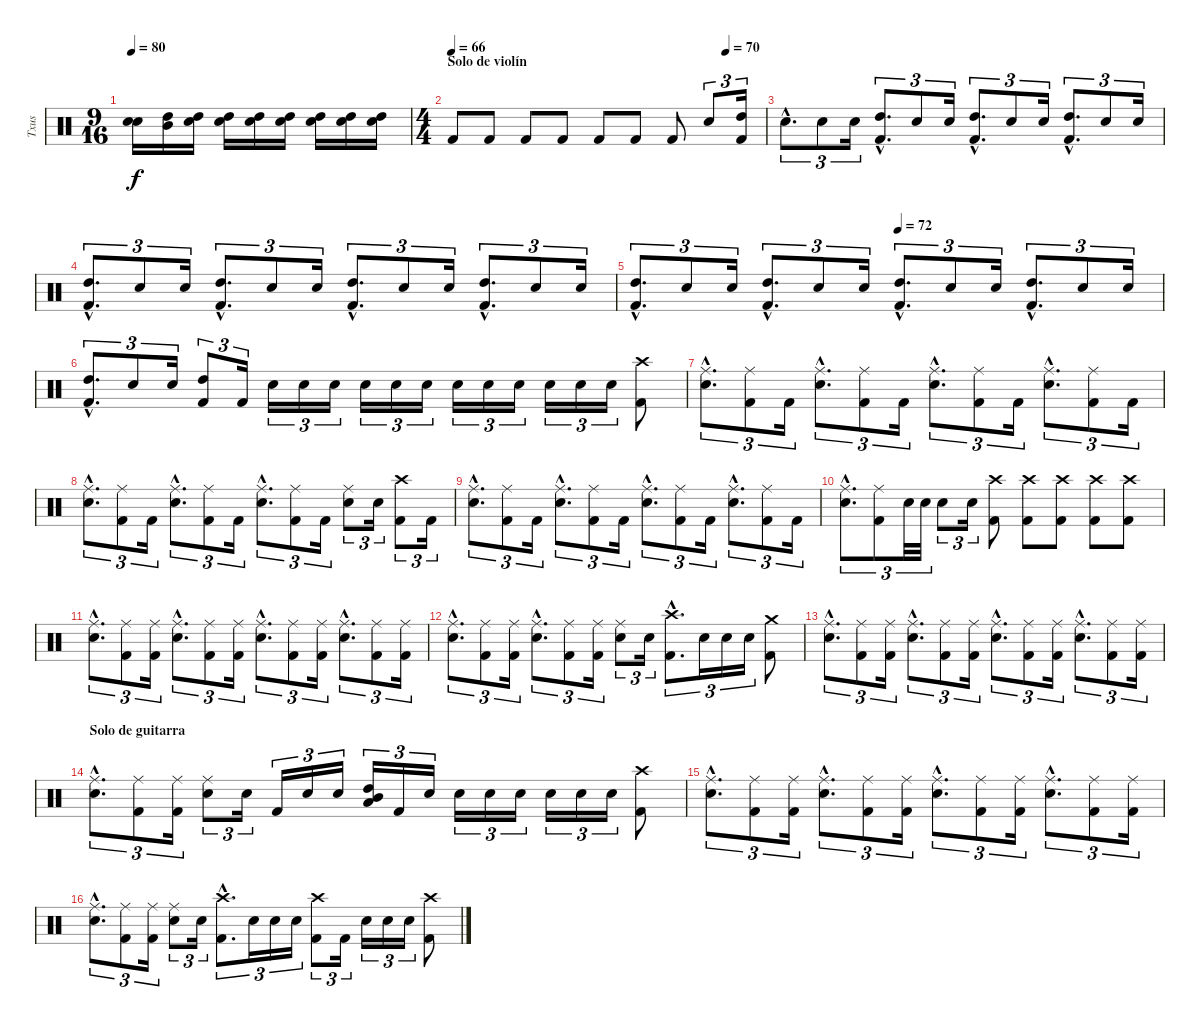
\track ("Txus" "Txus") {instrument percussion}
\staff {score}
\articulation defaults
\ts (9 16)
\tempo 80
\clef neutral
\ks c
("Snare (hit)"{t} "Snare (hit)"{t}).16{dy f} ("High Tom (hit)" "Mid Tom (hit)").16 ("High Tom (hit)" "Electric Snare (hit)").16 ("High Tom (hit)" "Electric Snare (hit)").16 ("High Tom (hit)" "Electric Snare (hit)").16 ("High Tom (hit)" "Electric Snare (hit)").16 ("High Tom (hit)" "Electric Snare (hit)").16 ("High Tom (hit)" "Electric Snare (hit)").16 ("High Tom (hit)" "Electric Snare (hit)").16 |
\ts (4 4)
\section ("" "Solo de violín")
\tempo 66
\tempo (70 0.875)
"Kick (hit) 2".8 "Kick (hit) 2".8 "Kick (hit) 2".8 "Kick (hit) 2".8 "Kick (hit) 2".8 "Kick (hit) 2".8 "Kick (hit) 2".8 "Electric Snare (hit)".8{tu (3 2)} ("High Tom (hit)" "Kick (hit) 2").16{tu (3 2)} |
"Electric Snare (hit)"{hac}.8{d tu (3 2)} "Electric Snare (hit)".8{tu (3 2)} "Electric Snare (hit)".16{tu (3 2)} ("High Tom (hit)"{hac} "Kick (hit) 2"{hac}).8{d tu (3 2)} "Electric Snare (hit)".8{tu (3 2)} "Electric Snare (hit)".16{tu (3 2)} ("High Tom (hit)"{hac} "Kick (hit) 2"{hac}).8{d tu (3 2)} "Electric Snare (hit)".8{tu (3 2)} "Electric Snare (hit)".16{tu (3 2)} ("High Tom (hit)"{hac} "Kick (hit) 2"{hac}).8{d tu (3 2)} "Electric Snare (hit)".8{tu (3 2)} "Electric Snare (hit)".16{tu (3 2)} |
("High Tom (hit)"{hac} "Kick (hit) 2"{hac}).8{d tu (3 2)} "Electric Snare (hit)".8{tu (3 2)} "Electric Snare (hit)".16{tu (3 2)} ("High Tom (hit)"{hac} "Kick (hit) 2"{hac}).8{d tu (3 2)} "Electric Snare (hit)".8{tu (3 2)} "Electric Snare (hit)".16{tu (3 2)} ("High Tom (hit)"{hac} "Kick (hit) 2"{hac}).8{d tu (3 2)} "Electric Snare (hit)".8{tu (3 2)} "Electric Snare (hit)".16{tu (3 2)} ("High Tom (hit)"{hac} "Kick (hit) 2"{hac}).8{d tu (3 2)} "Electric Snare (hit)".8{tu (3 2)} "Electric Snare (hit)".16{tu (3 2)} |
\tempo (72 0.5)
("High Tom (hit)"{hac} "Kick (hit) 2"{hac}).8{d tu (3 2)} "Electric Snare (hit)".8{tu (3 2)} "Electric Snare (hit)".16{tu (3 2)} ("High Tom (hit)"{hac} "Kick (hit) 2"{hac}).8{d tu (3 2)} "Electric Snare (hit)".8{tu (3 2)} "Electric Snare (hit)".16{tu (3 2)} ("High Tom (hit)"{hac} "Kick (hit) 2"{hac}).8{d tu (3 2)} "Electric Snare (hit)".8{tu (3 2)} "Electric Snare (hit)".16{tu (3 2)} ("High Tom (hit)"{hac} "Kick (hit) 2"{hac}).8{d tu (3 2)} "Electric Snare (hit)".8{tu (3 2)} "Electric Snare (hit)".16{tu (3 2)} |
("High Tom (hit)"{hac} "Kick (hit) 2"{hac}).8{d tu (3 2)} "Electric Snare (hit)".8{tu (3 2)} "Electric Snare (hit)".16{tu (3 2)} ("High Tom (hit)" "Kick (hit) 2").8{tu (3 2)} "Kick (hit) 2".16{tu (3 2)} "Electric Snare (hit)".16{tu (3 2)} "Electric Snare (hit)".16{tu (3 2)} "Electric Snare (hit)".16{tu (3 2)} "Electric Snare (hit)".16{tu (3 2)} "Electric Snare (hit)".16{tu (3 2)} "Electric Snare (hit)".16{tu (3 2)} "Electric Snare (hit)".16{tu (3 2)} "Electric Snare (hit)".16{tu (3 2)} "Electric Snare (hit)".16{tu (3 2)} "Electric Snare (hit)".16{tu (3 2)} "Electric Snare (hit)".16{tu (3 2)} "Electric Snare (hit)".16{tu (3 2)} ("Kick (hit) 2" "Crash high (hit)").8 |
("Electric Snare (hit)"{hac} "Ride (middle)"{hac}).8{d tu (3 2)} ("Kick (hit) 2" "Ride (middle)").8{tu (3 2)} "Kick (hit) 2".16{tu (3 2)} ("Electric Snare (hit)"{hac} "Ride (middle)"{hac}).8{d tu (3 2)} ("Kick (hit) 2" "Ride (middle)").8{tu (3 2)} "Kick (hit) 2".16{tu (3 2)} ("Electric Snare (hit)"{hac} "Ride (middle)"{hac}).8{d tu (3 2)} ("Kick (hit) 2" "Ride (middle)").8{tu (3 2)} "Kick (hit) 2".16{tu (3 2)} ("Electric Snare (hit)"{hac} "Ride (middle)"{hac}).8{d tu (3 2)} ("Kick (hit) 2" "Ride (middle)").8{tu (3 2)} "Kick (hit) 2".16{tu (3 2)} |
("Electric Snare (hit)"{hac} "Ride (middle)"{hac}).8{d tu (3 2)} ("Kick (hit) 2" "Ride (middle)").8{tu (3 2)} "Kick (hit) 2".16{tu (3 2)} ("Electric Snare (hit)"{hac} "Ride (middle)"{hac}).8{d tu (3 2)} ("Kick (hit) 2" "Ride (middle)").8{tu (3 2)} "Kick (hit) 2".16{tu (3 2)} ("Electric Snare (hit)"{hac} "Ride (middle)"{hac}).8{d tu (3 2)} ("Kick (hit) 2" "Ride (middle)").8{tu (3 2)} "Kick (hit) 2".16{tu (3 2)} ("Electric Snare (hit)" "Ride (middle)").8{tu (3 2)} "Electric Snare (hit)".16{tu (3 2)} ("Kick (hit) 2" "Crash high (hit)").8{tu (3 2)} "Kick (hit) 2".16{tu (3 2)} |
("Electric Snare (hit)"{hac} "Ride (middle)"{hac}).8{d tu (3 2)} ("Kick (hit) 2" "Ride (middle)").8{tu (3 2)} "Kick (hit) 2".16{tu (3 2)} ("Electric Snare (hit)"{hac} "Ride (middle)"{hac}).8{d tu (3 2)} ("Kick (hit) 2" "Ride (middle)").8{tu (3 2)} "Kick (hit) 2".16{tu (3 2)} ("Electric Snare (hit)"{hac} "Ride (middle)"{hac}).8{d tu (3 2)} ("Kick (hit) 2" "Ride (middle)").8{tu (3 2)} "Kick (hit) 2".16{tu (3 2)} ("Electric Snare (hit)"{hac} "Ride (middle)"{hac}).8{d tu (3 2)} ("Kick (hit) 2" "Ride (middle)").8{tu (3 2)} "Kick (hit) 2".16{tu (3 2)} |
("Electric Snare (hit)"{hac} "Ride (middle)"{hac}).8{d tu (3 2)} ("Kick (hit) 2" "Ride (middle)").8{tu (3 2)} "Electric Snare (hit)".32{tu (3 2)} "Electric Snare (hit)".32{tu (3 2)} "Electric Snare (hit)".8{tu (3 2)} "Electric Snare (hit)".16{tu (3 2)} ("Kick (hit) 2" "Crash high (hit)").8 ("Kick (hit) 2" "Crash high (hit)").8 ("Kick (hit) 2" "Crash high (hit)").8 ("Kick (hit) 2" "Crash high (hit)").8 ("Kick (hit) 2" "Crash high (hit)").8 |
("Electric Snare (hit)"{hac} "Ride (middle)"{hac}).8{d tu (3 2)} ("Kick (hit) 2" "Ride (middle)").8{tu (3 2)} ("Kick (hit) 2" "Ride (middle)").16{tu (3 2)} ("Electric Snare (hit)"{hac} "Ride (middle)"{hac}).8{d tu (3 2)} ("Kick (hit) 2" "Ride (middle)").8{tu (3 2)} ("Kick (hit) 2" "Ride (middle)").16{tu (3 2)} ("Electric Snare (hit)"{hac} "Ride (middle)"{hac}).8{d tu (3 2)} ("Kick (hit) 2" "Ride (middle)").8{tu (3 2)} ("Kick (hit) 2" "Ride (middle)").16{tu (3 2)} ("Electric Snare (hit)"{hac} "Ride (middle)"{hac}).8{d tu (3 2)} ("Kick (hit) 2" "Ride (middle)").8{tu (3 2)} ("Kick (hit) 2" "Ride (middle)").16{tu (3 2)} |
("Electric Snare (hit)"{hac} "Ride (middle)"{hac}).8{d tu (3 2)} ("Kick (hit) 2" "Ride (middle)").8{tu (3 2)} ("Kick (hit) 2" "Ride (middle)").16{tu (3 2)} ("Electric Snare (hit)"{hac} "Ride (middle)"{hac}).8{d tu (3 2)} ("Kick (hit) 2" "Ride (middle)").8{tu (3 2)} ("Kick (hit) 2" "Ride (middle)").16{tu (3 2)} ("Electric Snare (hit)" "Ride (middle)").8{tu (3 2)} "Electric Snare (hit)".16{tu (3 2)} ("Kick (hit) 2"{hac} "Crash high (hit)"{hac}).8{d tu (3 2)} "Electric Snare (hit)".16{tu (3 2)} "Electric Snare (hit)".16{tu (3 2)} "Electric Snare (hit)".16{tu (3 2)} ("Kick (hit) 2" "Crash medium (hit)").8 |
("Electric Snare (hit)"{hac} "Ride (middle)"{hac}).8{d tu (3 2)} ("Kick (hit) 2" "Ride (middle)").8{tu (3 2)} ("Kick (hit) 2" "Ride (middle)").16{tu (3 2)} ("Electric Snare (hit)"{hac} "Ride (middle)"{hac}).8{d tu (3 2)} ("Kick (hit) 2" "Ride (middle)").8{tu (3 2)} ("Kick (hit) 2" "Ride (middle)").16{tu (3 2)} ("Electric Snare (hit)"{hac} "Ride (middle)"{hac}).8{d tu (3 2)} ("Kick (hit) 2" "Ride (middle)").8{tu (3 2)} ("Kick (hit) 2" "Ride (middle)").16{tu (3 2)} ("Electric Snare (hit)"{hac} "Ride (middle)"{hac}).8{d tu (3 2)} ("Kick (hit) 2" "Ride (middle)").8{tu (3 2)} ("Kick (hit) 2" "Ride (middle)").16{tu (3 2)} |
\section ("" "Solo de guitarra")
("Electric Snare (hit)"{hac} "Ride (middle)"{hac}).8{d tu (3 2)} ("Kick (hit) 2" "Ride (middle)").8{tu (3 2)} ("Kick (hit) 2" "Ride (middle)").16{tu (3 2)} ("Electric Snare (hit)" "Ride (middle)").8{tu (3 2)} "Electric Snare (hit)".16{tu (3 2)} "Kick (hit) 2".16{tu (3 2)} "Electric Snare (hit)".16{tu (3 2)} "Electric Snare (hit)".16{tu (3 2)} ("High Tom (hit)" "Low Tom (hit)" "Mid Tom (hit)").16{tu (3 2)} "Kick (hit) 2".16{tu (3 2)} "Electric Snare (hit)".16{tu (3 2)} "Electric Snare (hit)".16{tu (3 2)} "Electric Snare (hit)".16{tu (3 2)} "Electric Snare (hit)".16{tu (3 2)} "Electric Snare (hit)".16{tu (3 2)} "Electric Snare (hit)".16{tu (3 2)} "Electric Snare (hit)".16{tu (3 2)} ("Kick (hit) 2" "Crash high (hit)").8 |
("Electric Snare (hit)"{hac} "Ride (middle)"{hac}).8{d tu (3 2)} ("Kick (hit) 2" "Ride (middle)").8{tu (3 2)} ("Kick (hit) 2" "Ride (middle)").16{tu (3 2)} ("Electric Snare (hit)"{hac} "Ride (middle)"{hac}).8{d tu (3 2)} ("Kick (hit) 2" "Ride (middle)").8{tu (3 2)} ("Kick (hit) 2" "Ride (middle)").16{tu (3 2)} ("Electric Snare (hit)"{hac} "Ride (middle)"{hac}).8{d tu (3 2)} ("Kick (hit) 2" "Ride (middle)").8{tu (3 2)} ("Kick (hit) 2" "Ride (middle)").16{tu (3 2)} ("Electric Snare (hit)"{hac} "Ride (middle)"{hac}).8{d tu (3 2)} ("Kick (hit) 2" "Ride (middle)").8{tu (3 2)} ("Kick (hit) 2" "Ride (middle)").16{tu (3 2)} |
("Electric Snare (hit)"{hac} "Ride (middle)"{hac}).8{d tu (3 2)} ("Kick (hit) 2" "Ride (middle)").8{tu (3 2)} ("Kick (hit) 2" "Ride (middle)").16{tu (3 2)} ("Electric Snare (hit)" "Ride (middle)").8{tu (3 2)} "Electric Snare (hit)".16{tu (3 2)} ("Kick (hit) 2"{hac} "Crash high (hit)"{hac}).8{d tu (3 2)} "Electric Snare (hit)".16{tu (3 2)} "Electric Snare (hit)".16{tu (3 2)} "Electric Snare (hit)".16{tu (3 2)} ("Kick (hit) 2" "Crash high (hit)").8{tu (3 2)} "Kick (hit) 2".16{tu (3 2)} "Electric Snare (hit)".16{tu (3 2)} "Electric Snare (hit)".16{tu (3 2)} "Electric Snare (hit)".16{tu (3 2)} ("Kick (hit) 2" "Crash high (hit)").8
